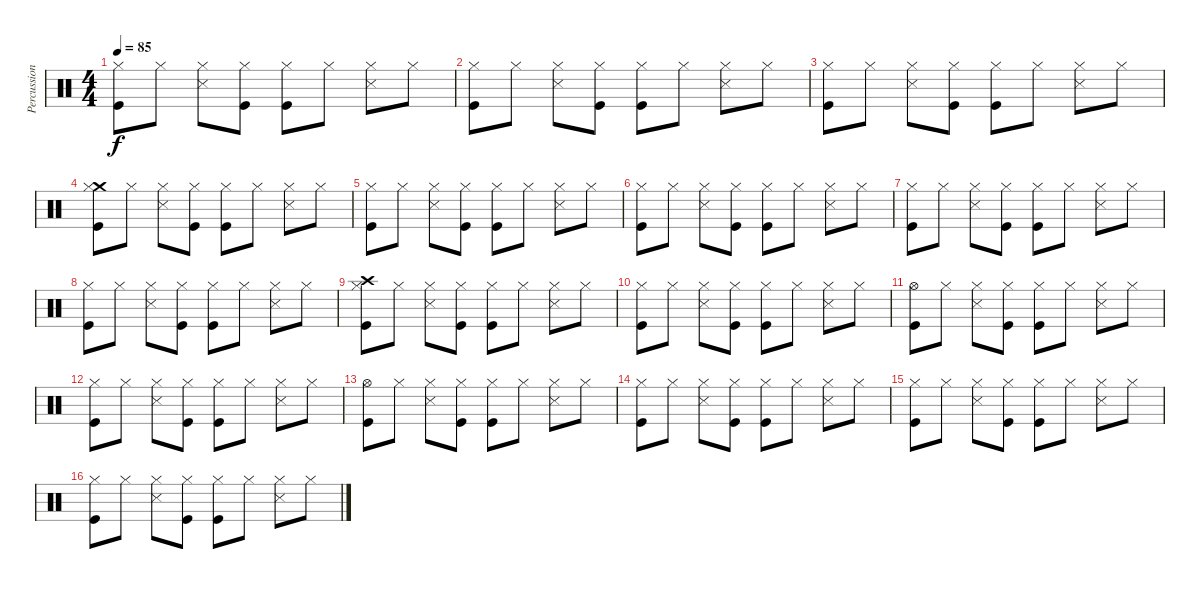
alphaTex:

\track ("Percussion" "Percussion") {instrument percussion}
\staff {score}
\articulation defaults
\ts (4 4)
\tempo 85
\clef neutral
\ks c
("Hi-Hat (closed)" "Kick (hit)").8{dy f} "Hi-Hat (closed)".8 ("Hi-Hat (closed)" "Snare (side stick) 3").8 ("Hi-Hat (closed)" "Kick (hit)").8 ("Hi-Hat (closed)" "Kick (hit)").8 "Hi-Hat (closed)".8 ("Hi-Hat (closed)" "Snare (side stick) 3").8 "Hi-Hat (closed)".8 |
("Hi-Hat (closed)" "Kick (hit)").8 "Hi-Hat (closed)".8 ("Hi-Hat (closed)" "Snare (side stick) 3").8 ("Hi-Hat (closed)" "Kick (hit)").8 ("Hi-Hat (closed)" "Kick (hit)").8 "Hi-Hat (closed)".8 ("Hi-Hat (closed)" "Snare (side stick) 3").8 "Hi-Hat (closed)".8 |
("Hi-Hat (closed)" "Kick (hit)").8 "Hi-Hat (closed)".8 ("Hi-Hat (closed)" "Snare (side stick) 3").8 ("Hi-Hat (closed)" "Kick (hit)").8 ("Hi-Hat (closed)" "Kick (hit)").8 "Hi-Hat (closed)".8 ("Hi-Hat (closed)" "Snare (side stick) 3").8 "Hi-Hat (closed)".8 |
("Crash medium (hit)" "Hi-Hat (closed)" "Kick (hit)").8 "Hi-Hat (closed)".8 ("Hi-Hat (closed)" "Snare (side stick) 3").8 ("Hi-Hat (closed)" "Kick (hit)").8 ("Hi-Hat (closed)" "Kick (hit)").8 "Hi-Hat (closed)".8 ("Hi-Hat (closed)" "Snare (side stick) 3").8 "Hi-Hat (closed)".8 |
("Hi-Hat (closed)" "Kick (hit)").8 "Hi-Hat (closed)".8 ("Hi-Hat (closed)" "Snare (side stick) 3").8 ("Hi-Hat (closed)" "Kick (hit)").8 ("Hi-Hat (closed)" "Kick (hit)").8 "Hi-Hat (closed)".8 ("Hi-Hat (closed)" "Snare (side stick) 3").8 "Hi-Hat (closed)".8 |
("Hi-Hat (closed)" "Kick (hit)").8 "Hi-Hat (closed)".8 ("Hi-Hat (closed)" "Snare (side stick) 3").8 ("Hi-Hat (closed)" "Kick (hit)").8 ("Hi-Hat (closed)" "Kick (hit)").8 "Hi-Hat (closed)".8 ("Hi-Hat (closed)" "Snare (side stick) 3").8 "Hi-Hat (closed)".8 |
("Hi-Hat (closed)" "Kick (hit)").8 "Hi-Hat (closed)".8 ("Hi-Hat (closed)" "Snare (side stick) 3").8 ("Hi-Hat (closed)" "Kick (hit)").8 ("Hi-Hat (closed)" "Kick (hit)").8 "Hi-Hat (closed)".8 ("Hi-Hat (closed)" "Snare (side stick) 3").8 "Hi-Hat (closed)".8 |
("Hi-Hat (closed)" "Kick (hit)").8 "Hi-Hat (closed)".8 ("Hi-Hat (closed)" "Snare (side stick) 3").8 ("Hi-Hat (closed)" "Kick (hit)").8 ("Hi-Hat (closed)" "Kick (hit)").8 "Hi-Hat (closed)".8 ("Hi-Hat (closed)" "Snare (side stick) 3").8 "Hi-Hat (closed)".8 |
("Crash high (hit)" "Hi-Hat (closed)" "Kick (hit)").8 "Hi-Hat (closed)".8 ("Hi-Hat (closed)" "Snare (side stick) 3").8 ("Hi-Hat (closed)" "Kick (hit)").8 ("Hi-Hat (closed)" "Kick (hit)").8 "Hi-Hat (closed)".8 ("Hi-Hat (closed)" "Snare (side stick) 3").8 "Hi-Hat (closed)".8 |
("Hi-Hat (closed)" "Kick (hit)").8 "Hi-Hat (closed)".8 ("Hi-Hat (closed)" "Snare (side stick) 3").8 ("Hi-Hat (closed)" "Kick (hit)").8 ("Hi-Hat (closed)" "Kick (hit)").8 "Hi-Hat (closed)".8 ("Hi-Hat (closed)" "Snare (side stick) 3").8 "Hi-Hat (closed)".8 |
("Hi-Hat (open)" "Kick (hit)").8 "Hi-Hat (closed)".8 ("Hi-Hat (closed)" "Snare (side stick) 3").8 ("Hi-Hat (closed)" "Kick (hit)").8 ("Hi-Hat (closed)" "Kick (hit)").8 "Hi-Hat (closed)".8 ("Hi-Hat (closed)" "Snare (side stick) 3").8 "Hi-Hat (closed)".8 |
("Hi-Hat (closed)" "Kick (hit)").8 "Hi-Hat (closed)".8 ("Hi-Hat (closed)" "Snare (side stick) 3").8 ("Hi-Hat (closed)" "Kick (hit)").8 ("Hi-Hat (closed)" "Kick (hit)").8 "Hi-Hat (closed)".8 ("Hi-Hat (closed)" "Snare (side stick) 3").8 "Hi-Hat (closed)".8 |
("Hi-Hat (open)" "Kick (hit)").8 "Hi-Hat (closed)".8 ("Hi-Hat (closed)" "Snare (side stick) 3").8 ("Hi-Hat (closed)" "Kick (hit)").8 ("Hi-Hat (closed)" "Kick (hit)").8 "Hi-Hat (closed)".8 ("Hi-Hat (closed)" "Snare (side stick) 3").8 "Hi-Hat (closed)".8 |
("Hi-Hat (closed)" "Kick (hit)").8 "Hi-Hat (closed)".8 ("Hi-Hat (closed)" "Snare (side stick) 3").8 ("Hi-Hat (closed)" "Kick (hit)").8 ("Hi-Hat (closed)" "Kick (hit)").8 "Hi-Hat (closed)".8 ("Hi-Hat (closed)" "Snare (side stick) 3").8 "Hi-Hat (closed)".8 |
("Hi-Hat (closed)" "Kick (hit)").8 "Hi-Hat (closed)".8 ("Hi-Hat (closed)" "Snare (side stick) 3").8 ("Hi-Hat (closed)" "Kick (hit)").8 ("Hi-Hat (closed)" "Kick (hit)").8 "Hi-Hat (closed)".8 ("Hi-Hat (closed)" "Snare (side stick) 3").8 "Hi-Hat (closed)".8 |
("Hi-Hat (closed)" "Kick (hit)").8 "Hi-Hat (closed)".8 ("Hi-Hat (closed)" "Snare (side stick) 3").8 ("Hi-Hat (closed)" "Kick (hit)").8 ("Hi-Hat (closed)" "Kick (hit)").8 "Hi-Hat (closed)".8 ("Hi-Hat (closed)" "Snare (side stick) 3").8 "Hi-Hat (closed)".8
